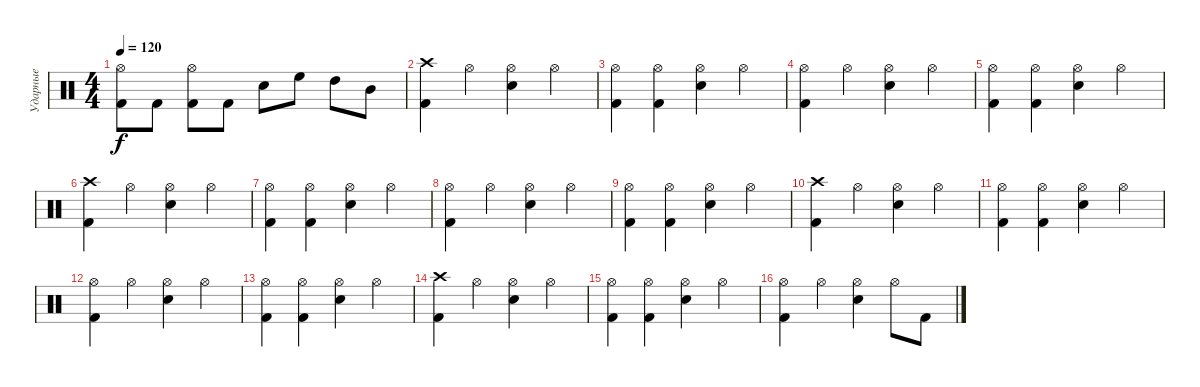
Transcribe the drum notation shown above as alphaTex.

\track ("Ударные" "Ударные") {instrument percussion}
\staff {score}
\articulation defaults
\ts (4 4)
\tempo 120
\clef neutral
\ks c
("Hi-Hat (open)" "Kick (hit) 2").8{dy f} "Kick (hit) 2".8 ("Hi-Hat (open)" "Kick (hit) 2").8 "Kick (hit) 2".8 "Snare (hit) 2".8 "High Floor Tom (hit)".8 "High Tom (hit)".8 "Mid Tom (hit)".8 |
("Crash high (hit)" "Kick (hit) 2").4 "Hi-Hat (open)".4 ("Hi-Hat (open)" "Snare (hit) 2").4 "Hi-Hat (open)".4 |
("Hi-Hat (open)" "Kick (hit) 2").4 ("Hi-Hat (open)" "Kick (hit) 2").4 ("Hi-Hat (open)" "Snare (hit) 2").4 "Hi-Hat (open)".4 |
("Hi-Hat (open)" "Kick (hit) 2").4 "Hi-Hat (open)".4 ("Hi-Hat (open)" "Snare (hit) 2").4 "Hi-Hat (open)".4 |
("Hi-Hat (open)" "Kick (hit) 2").4 ("Hi-Hat (open)" "Kick (hit) 2").4 ("Hi-Hat (open)" "Snare (hit) 2").4 "Hi-Hat (open)".4 |
("Crash high (hit)" "Kick (hit) 2").4 "Hi-Hat (open)".4 ("Hi-Hat (open)" "Snare (hit) 2").4 "Hi-Hat (open)".4 |
("Hi-Hat (open)" "Kick (hit) 2").4 ("Hi-Hat (open)" "Kick (hit) 2").4 ("Hi-Hat (open)" "Snare (hit) 2").4 "Hi-Hat (open)".4 |
("Hi-Hat (open)" "Kick (hit) 2").4 "Hi-Hat (open)".4 ("Hi-Hat (open)" "Snare (hit) 2").4 "Hi-Hat (open)".4 |
("Hi-Hat (open)" "Kick (hit) 2").4 ("Hi-Hat (open)" "Kick (hit) 2").4 ("Hi-Hat (open)" "Snare (hit) 2").4 "Hi-Hat (open)".4 |
("Crash high (hit)" "Kick (hit) 2").4 "Hi-Hat (open)".4 ("Hi-Hat (open)" "Snare (hit) 2").4 "Hi-Hat (open)".4 |
("Hi-Hat (open)" "Kick (hit) 2").4 ("Hi-Hat (open)" "Kick (hit) 2").4 ("Hi-Hat (open)" "Snare (hit) 2").4 "Hi-Hat (open)".4 |
("Hi-Hat (open)" "Kick (hit) 2").4 "Hi-Hat (open)".4 ("Hi-Hat (open)" "Snare (hit) 2").4 "Hi-Hat (open)".4 |
("Hi-Hat (open)" "Kick (hit) 2").4 ("Hi-Hat (open)" "Kick (hit) 2").4 ("Hi-Hat (open)" "Snare (hit) 2").4 "Hi-Hat (open)".4 |
("Crash high (hit)" "Kick (hit) 2").4 "Hi-Hat (open)".4 ("Hi-Hat (open)" "Snare (hit) 2").4 "Hi-Hat (open)".4 |
("Hi-Hat (open)" "Kick (hit) 2").4 ("Hi-Hat (open)" "Kick (hit) 2").4 ("Hi-Hat (open)" "Snare (hit) 2").4 "Hi-Hat (open)".4 |
("Hi-Hat (open)" "Kick (hit) 2").4 "Hi-Hat (open)".4 ("Hi-Hat (open)" "Snare (hit) 2").4 "Hi-Hat (open)".8 "Kick (hit) 2".8
